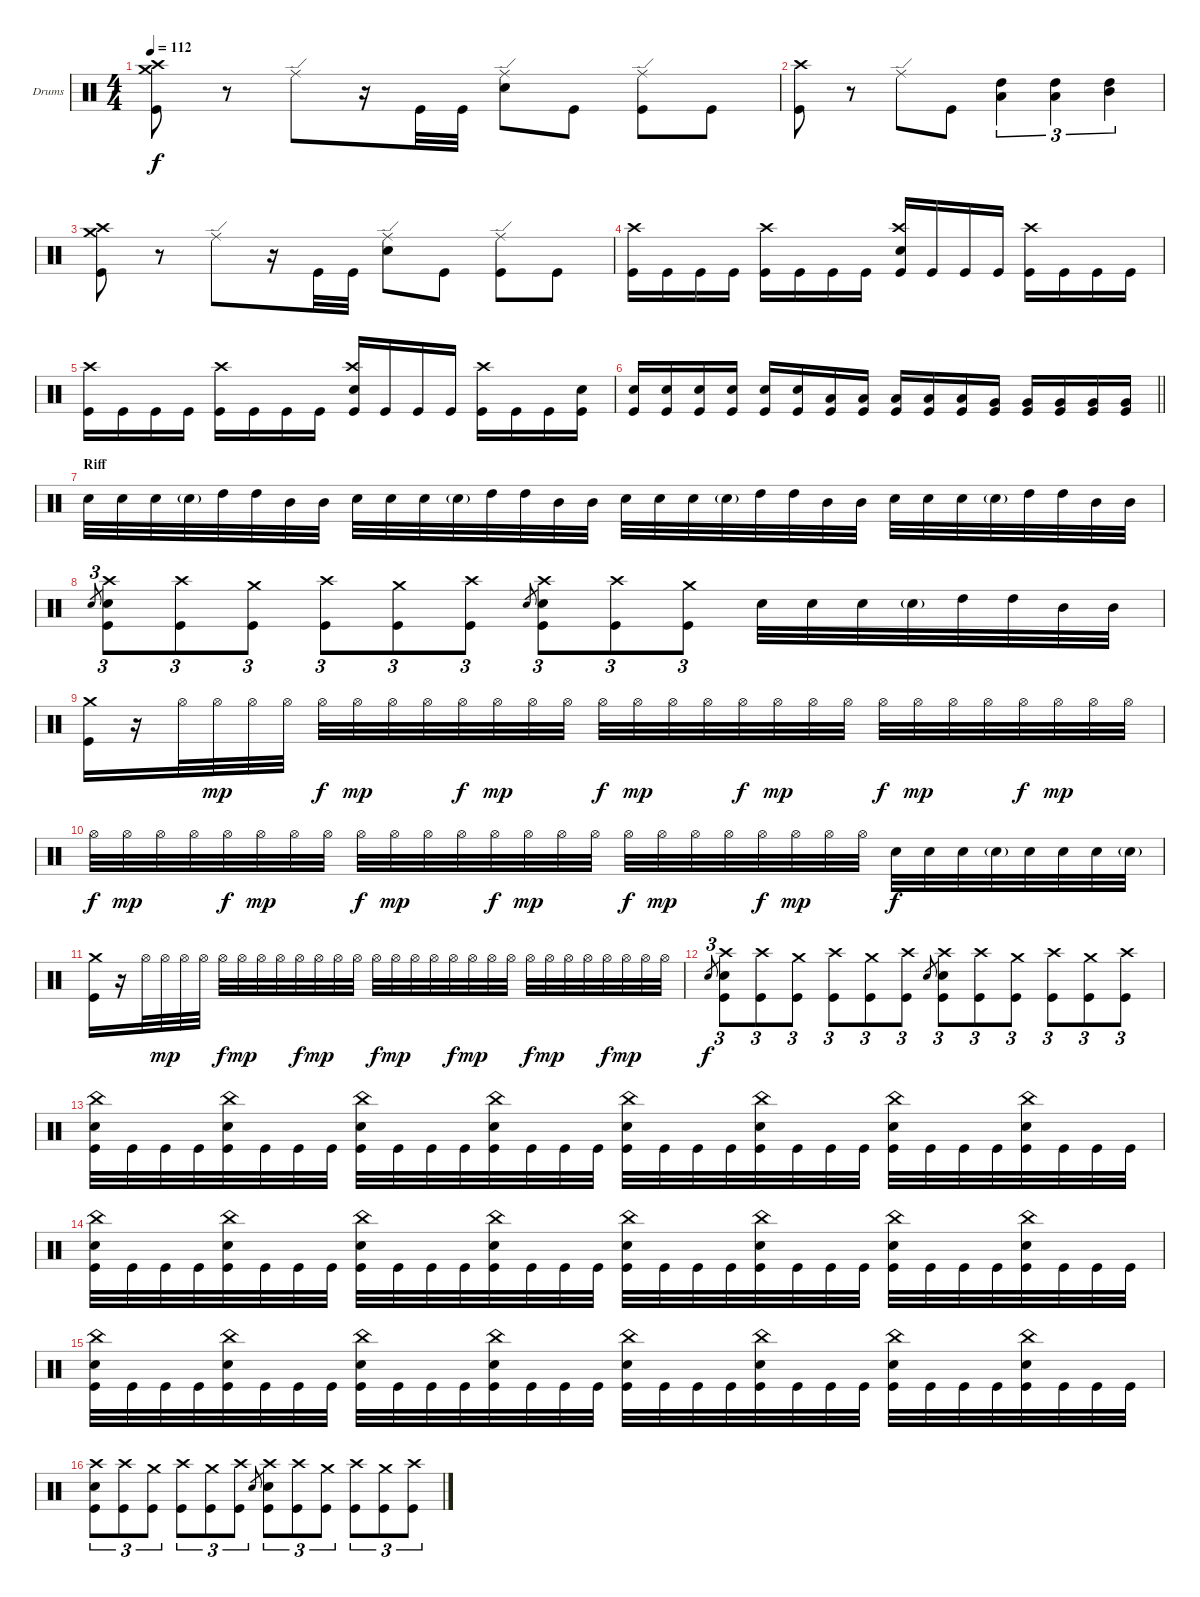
\bracketExtendMode groupsimilarinstruments
\firstSystemTrackNameOrientation horizontal
\otherSystemsTrackNameOrientation horizontal
\track ("Drumkit" "Drums") {instrument percussion}
\staff {score}
\articulation defaults
\ts (4 4)
\tempo 112
\clef neutral
\scale
0.333333
\ks c
("Kick (hit)" "Crash medium (hit)" "Crash high (hit)").8{dy f} r.8 "Ride (edge)".8 r.16 "Kick (hit)".32 "Kick (hit)".32 ("Snare (hit) 2" "Ride (edge)").8 "Kick (hit)".8 ("Kick (hit)" "Ride (edge)").8 "Kick (hit)".8 |
\scale
0.333333 ("Kick (hit)" "Crash high (hit)").8 r.8 "Ride (edge)".8 "Kick (hit)".8 ("High Tom (hit)" "Low Tom (hit)").4{tu (3 2)} ("Low Tom (hit)" "High Tom (hit)").4{tu (3 2)} ("High Tom (hit)" "Mid Tom (hit)").4{tu (3 2)} |
\scale
0.333333 ("Kick (hit)" "Crash medium (hit)" "Crash high (hit)").8 r.8 "Ride (edge)".8 r.16 "Kick (hit)".32 "Kick (hit)".32 ("Snare (hit) 2" "Ride (edge)").8 "Kick (hit)".8 ("Kick (hit)" "Ride (edge)").8 "Kick (hit)".8 |
\scale
0.333333 ("Kick (hit)" "Crash high (hit)").16 "Kick (hit)".16 "Kick (hit)".16 "Kick (hit)".16 ("Kick (hit)" "Crash high (hit)").16 "Kick (hit)".16 "Kick (hit)".16 "Kick (hit)".16 ("Kick (hit)" "Crash high (hit)" "Snare (hit) 2").16 "Kick (hit)".16 "Kick (hit)".16 "Kick (hit)".16 ("Kick (hit)" "Crash high (hit)").16 "Kick (hit)".16 "Kick (hit)".16 "Kick (hit)".16 |
\scale
0.333333 ("Kick (hit)" "Crash high (hit)").16 "Kick (hit)".16 "Kick (hit)".16 "Kick (hit)".16 ("Kick (hit)" "Crash high (hit)").16 "Kick (hit)".16 "Kick (hit)".16 "Kick (hit)".16 ("Kick (hit)" "Crash high (hit)" "Snare (hit) 2").16 "Kick (hit)".16 "Kick (hit)".16 "Kick (hit)".16 ("Kick (hit)" "Crash high (hit)").16 "Kick (hit)".16 "Kick (hit)".16 ("Kick (hit)" "Snare (hit) 2").16 |
\scale
0.333333
\barLineRight lightlight
("Snare (hit) 2" "Kick (hit)").16 ("Snare (hit) 2" "Kick (hit)").16 ("Snare (hit) 2" "Kick (hit)").16 ("Snare (hit) 2" "Kick (hit)").16 ("Snare (hit) 2" "Kick (hit)").16 ("Snare (hit) 2" "Kick (hit)").16 ("Low Tom (hit)" "Kick (hit)").16 ("Low Tom (hit)" "Kick (hit)").16 ("Low Tom (hit)" "Kick (hit)").16 ("Low Tom (hit)" "Kick (hit)").16 ("Low Tom (hit)" "Kick (hit)").16 ("Very Low Tom (hit)" "Kick (hit)").16 ("Very Low Tom (hit)" "Kick (hit)").16 ("Very Low Tom (hit)" "Kick (hit)").16 ("Very Low Tom (hit)" "Kick (hit)").16 ("Very Low Tom (hit)" "Kick (hit)").16 |
\section ("" "Riff")
\scale
0.333333 "Snare (hit) 2".32 "Snare (hit) 2".32 "Snare (hit) 2".32 "Snare (hit) 2"{g}.32 "High Tom (hit)".32 "High Tom (hit)".32 "Mid Tom (hit)".32 "Mid Tom (hit)".32 "Snare (hit) 2".32 "Snare (hit) 2".32 "Snare (hit) 2".32 "Snare (hit) 2"{g}.32 "High Tom (hit)".32 "High Tom (hit)".32 "Mid Tom (hit)".32 "Mid Tom (hit)".32 "Snare (hit) 2".32 "Snare (hit) 2".32 "Snare (hit) 2".32 "Snare (hit) 2"{g}.32 "High Tom (hit)".32 "High Tom (hit)".32 "Mid Tom (hit)".32 "Mid Tom (hit)".32 "Snare (hit) 2".32 "Snare (hit) 2".32 "Snare (hit) 2".32 "Snare (hit) 2"{g}.32 "High Tom (hit)".32 "High Tom (hit)".32 "Mid Tom (hit)".32 "Mid Tom (hit)".32 |
\scale
0.333333 "Snare (hit) 2".8{tu (3 2) gr} ("Kick (hit)" "Crash high (hit)" "Snare (hit) 2").8{tu (3 2)} ("Kick (hit)" "Crash high (hit)").8{tu (3 2)} ("Kick (hit)" "Crash medium (hit)").8{tu (3 2)} ("Kick (hit)" "Crash high (hit)").8{tu (3 2)} ("Kick (hit)" "Crash medium (hit)").8{tu (3 2)} ("Kick (hit)" "Crash high (hit)").8{tu (3 2)} "Snare (hit) 2".8{tu (3 2) gr} ("Kick (hit)" "Crash high (hit)" "Snare (hit) 2").8{tu (3 2)} ("Kick (hit)" "Crash high (hit)").8{tu (3 2)} ("Kick (hit)" "Crash medium (hit)").8{tu (3 2)} "Snare (hit) 2".32 "Snare (hit) 2".32 "Snare (hit) 2".32 "Snare (hit) 2"{g}.32 "High Tom (hit)".32 "High Tom (hit)".32 "Mid Tom (hit)".32 "Mid Tom (hit)".32 |
\scale
0.333333 ("Crash medium (hit)" "Kick (hit)").16 r.16 "Hi-Hat (open)".32 "Hi-Hat (open)".32{dy mp} "Hi-Hat (open)".32 "Hi-Hat (open)".32 "Hi-Hat (open)".32{dy f} "Hi-Hat (open)".32{dy mp} "Hi-Hat (open)".32 "Hi-Hat (open)".32 "Hi-Hat (open)".32{dy f} "Hi-Hat (open)".32{dy mp} "Hi-Hat (open)".32 "Hi-Hat (open)".32 "Hi-Hat (open)".32{dy f} "Hi-Hat (open)".32{dy mp} "Hi-Hat (open)".32 "Hi-Hat (open)".32 "Hi-Hat (open)".32{dy f} "Hi-Hat (open)".32{dy mp} "Hi-Hat (open)".32 "Hi-Hat (open)".32 "Hi-Hat (open)".32{dy f} "Hi-Hat (open)".32{dy mp} "Hi-Hat (open)".32 "Hi-Hat (open)".32 "Hi-Hat (open)".32{dy f} "Hi-Hat (open)".32{dy mp} "Hi-Hat (open)".32 "Hi-Hat (open)".32 |
\scale
0.333333 "Hi-Hat (open)".32{dy f} "Hi-Hat (open)".32{dy mp} "Hi-Hat (open)".32 "Hi-Hat (open)".32 "Hi-Hat (open)".32{dy f} "Hi-Hat (open)".32{dy mp} "Hi-Hat (open)".32 "Hi-Hat (open)".32 "Hi-Hat (open)".32{dy f} "Hi-Hat (open)".32{dy mp} "Hi-Hat (open)".32 "Hi-Hat (open)".32 "Hi-Hat (open)".32{dy f} "Hi-Hat (open)".32{dy mp} "Hi-Hat (open)".32 "Hi-Hat (open)".32 "Hi-Hat (open)".32{dy f} "Hi-Hat (open)".32{dy mp} "Hi-Hat (open)".32 "Hi-Hat (open)".32 "Hi-Hat (open)".32{dy f} "Hi-Hat (open)".32{dy mp} "Hi-Hat (open)".32 "Hi-Hat (open)".32 "Snare (hit) 2".32{dy f} "Snare (hit) 2".32 "Snare (hit) 2".32 "Snare (hit) 2"{g}.32 "Snare (hit) 2".32 "Snare (hit) 2".32 "Snare (hit) 2".32 "Snare (hit) 2"{g}.32 |
\scale
0.333333 ("Crash medium (hit)" "Kick (hit)").16 r.16 "Hi-Hat (open)".32 "Hi-Hat (open)".32{dy mp} "Hi-Hat (open)".32 "Hi-Hat (open)".32 "Hi-Hat (open)".32{dy f} "Hi-Hat (open)".32{dy mp} "Hi-Hat (open)".32 "Hi-Hat (open)".32 "Hi-Hat (open)".32{dy f} "Hi-Hat (open)".32{dy mp} "Hi-Hat (open)".32 "Hi-Hat (open)".32 "Hi-Hat (open)".32{dy f} "Hi-Hat (open)".32{dy mp} "Hi-Hat (open)".32 "Hi-Hat (open)".32 "Hi-Hat (open)".32{dy f} "Hi-Hat (open)".32{dy mp} "Hi-Hat (open)".32 "Hi-Hat (open)".32 "Hi-Hat (open)".32{dy f} "Hi-Hat (open)".32{dy mp} "Hi-Hat (open)".32 "Hi-Hat (open)".32 "Hi-Hat (open)".32{dy f} "Hi-Hat (open)".32{dy mp} "Hi-Hat (open)".32 "Hi-Hat (open)".32 |
\scale
0.333333 "Snare (hit) 2".8{tu (3 2) gr dy f} ("Kick (hit)" "Crash high (hit)" "Snare (hit) 2").8{tu (3 2)} ("Kick (hit)" "Crash high (hit)").8{tu (3 2)} ("Kick (hit)" "Crash medium (hit)").8{tu (3 2)} ("Kick (hit)" "Crash high (hit)").8{tu (3 2)} ("Kick (hit)" "Crash medium (hit)").8{tu (3 2)} ("Kick (hit)" "Crash high (hit)").8{tu (3 2)} "Snare (hit) 2".8{tu (3 2) gr} ("Kick (hit)" "Crash high (hit)" "Snare (hit) 2").8{tu (3 2)} ("Kick (hit)" "Crash high (hit)").8{tu (3 2)} ("Kick (hit)" "Crash medium (hit)").8{tu (3 2)} ("Kick (hit)" "Crash high (hit)").8{tu (3 2)} ("Kick (hit)" "Crash medium (hit)").8{tu (3 2)} ("Kick (hit)" "Crash high (hit)").8{tu (3 2)} |
\scale
0.333333 ("Kick (hit)" "China (hit)" "Snare (hit) 2").32 "Kick (hit)".32 "Kick (hit)".32 "Kick (hit)".32 ("Kick (hit)" "China (hit)" "Snare (hit) 2").32 "Kick (hit)".32 "Kick (hit)".32 "Kick (hit)".32 ("Kick (hit)" "China (hit)" "Snare (hit) 2").32 "Kick (hit)".32 "Kick (hit)".32 "Kick (hit)".32 ("Kick (hit)" "China (hit)" "Snare (hit) 2").32 "Kick (hit)".32 "Kick (hit)".32 "Kick (hit)".32 ("Kick (hit)" "China (hit)" "Snare (hit) 2").32 "Kick (hit)".32 "Kick (hit)".32 "Kick (hit)".32 ("Kick (hit)" "China (hit)" "Snare (hit) 2").32 "Kick (hit)".32 "Kick (hit)".32 "Kick (hit)".32 ("Kick (hit)" "China (hit)" "Snare (hit) 2").32 "Kick (hit)".32 "Kick (hit)".32 "Kick (hit)".32 ("Kick (hit)" "China (hit)" "Snare (hit) 2").32 "Kick (hit)".32 "Kick (hit)".32 "Kick (hit)".32 |
\scale
0.333333 ("Kick (hit)" "China (hit)" "Snare (hit) 2").32 "Kick (hit)".32 "Kick (hit)".32 "Kick (hit)".32 ("Kick (hit)" "China (hit)" "Snare (hit) 2").32 "Kick (hit)".32 "Kick (hit)".32 "Kick (hit)".32 ("Kick (hit)" "China (hit)" "Snare (hit) 2").32 "Kick (hit)".32 "Kick (hit)".32 "Kick (hit)".32 ("Kick (hit)" "China (hit)" "Snare (hit) 2").32 "Kick (hit)".32 "Kick (hit)".32 "Kick (hit)".32 ("Kick (hit)" "China (hit)" "Snare (hit) 2").32 "Kick (hit)".32 "Kick (hit)".32 "Kick (hit)".32 ("Kick (hit)" "China (hit)" "Snare (hit) 2").32 "Kick (hit)".32 "Kick (hit)".32 "Kick (hit)".32 ("Kick (hit)" "China (hit)" "Snare (hit) 2").32 "Kick (hit)".32 "Kick (hit)".32 "Kick (hit)".32 ("Kick (hit)" "China (hit)" "Snare (hit) 2").32 "Kick (hit)".32 "Kick (hit)".32 "Kick (hit)".32 |
\scale
0.333333 ("Kick (hit)" "China (hit)" "Snare (hit) 2").32 "Kick (hit)".32 "Kick (hit)".32 "Kick (hit)".32 ("Kick (hit)" "China (hit)" "Snare (hit) 2").32 "Kick (hit)".32 "Kick (hit)".32 "Kick (hit)".32 ("Kick (hit)" "China (hit)" "Snare (hit) 2").32 "Kick (hit)".32 "Kick (hit)".32 "Kick (hit)".32 ("Kick (hit)" "China (hit)" "Snare (hit) 2").32 "Kick (hit)".32 "Kick (hit)".32 "Kick (hit)".32 ("Kick (hit)" "China (hit)" "Snare (hit) 2").32 "Kick (hit)".32 "Kick (hit)".32 "Kick (hit)".32 ("Kick (hit)" "China (hit)" "Snare (hit) 2").32 "Kick (hit)".32 "Kick (hit)".32 "Kick (hit)".32 ("Kick (hit)" "China (hit)" "Snare (hit) 2").32 "Kick (hit)".32 "Kick (hit)".32 "Kick (hit)".32 ("Kick (hit)" "China (hit)" "Snare (hit) 2").32 "Kick (hit)".32 "Kick (hit)".32 "Kick (hit)".32 |
\scale
0.333333 ("Kick (hit)" "Crash high (hit)" "Snare (hit) 2").8{tu (3 2)} ("Kick (hit)" "Crash high (hit)").8{tu (3 2)} ("Kick (hit)" "Crash medium (hit)").8{tu (3 2)} ("Kick (hit)" "Crash high (hit)").8{tu (3 2)} ("Kick (hit)" "Crash medium (hit)").8{tu (3 2)} ("Kick (hit)" "Crash high (hit)").8{tu (3 2)} "Snare (hit) 2".8{tu (3 2) gr} ("Kick (hit)" "Crash high (hit)" "Snare (hit) 2").8{tu (3 2)} ("Kick (hit)" "Crash high (hit)").8{tu (3 2)} ("Kick (hit)" "Crash medium (hit)").8{tu (3 2)} ("Kick (hit)" "Crash high (hit)").8{tu (3 2)} ("Kick (hit)" "Crash medium (hit)").8{tu (3 2)} ("Kick (hit)" "Crash high (hit)").8{tu (3 2)}
